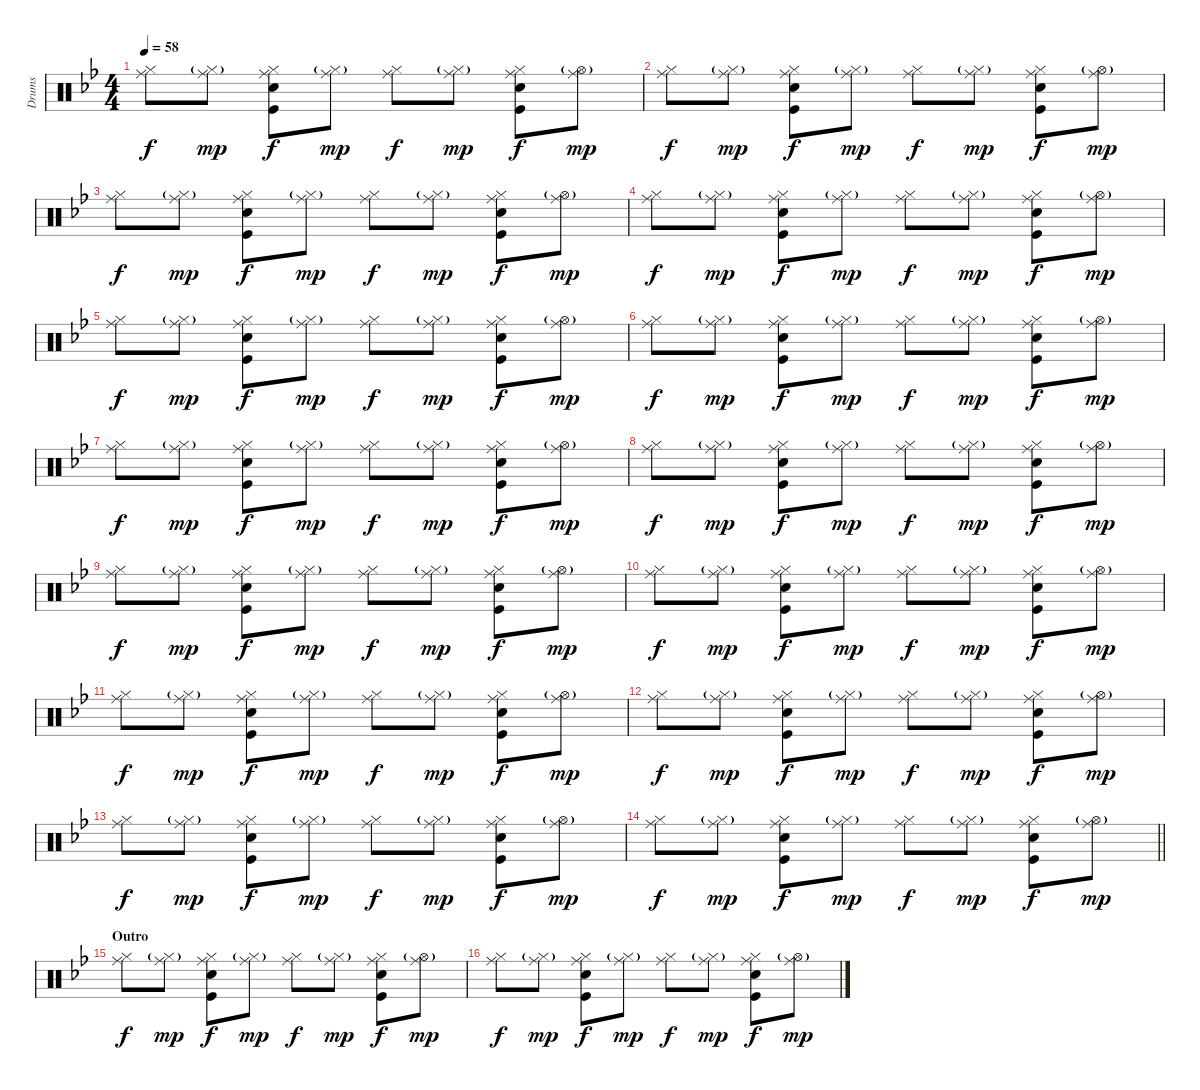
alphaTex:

\track ("Drums" "Drums") {instrument percussion}
\staff {score}
\articulation defaults
\ts (4 4)
\tempo 58
\clef neutral
\ks bb
("Ride (middle)" "Hi-Hat (closed)").8{dy f} ("Ride (middle)" "Hi-Hat (closed)"{g}).8{dy mp} ("Ride (middle)" "Hi-Hat (closed)" "Kick (hit)" "Snare (hit) 2").8{dy f} ("Ride (middle)" "Hi-Hat (closed)"{g}).8{dy mp} ("Ride (middle)" "Hi-Hat (closed)").8{dy f} ("Ride (middle)" "Hi-Hat (closed)"{g}).8{dy mp} ("Ride (middle)" "Hi-Hat (closed)" "Kick (hit)" "Snare (hit) 2").8{dy f} ("Ride (middle)" "Hi-Hat (open)"{g}).8{dy mp} |
("Ride (middle)" "Hi-Hat (closed)").8{dy f} ("Ride (middle)" "Hi-Hat (closed)"{g}).8{dy mp} ("Ride (middle)" "Hi-Hat (closed)" "Kick (hit)" "Snare (hit) 2").8{dy f} ("Ride (middle)" "Hi-Hat (closed)"{g}).8{dy mp} ("Ride (middle)" "Hi-Hat (closed)").8{dy f} ("Ride (middle)" "Hi-Hat (closed)"{g}).8{dy mp} ("Ride (middle)" "Hi-Hat (closed)" "Kick (hit)" "Snare (hit) 2").8{dy f} ("Ride (middle)" "Hi-Hat (open)"{g}).8{dy mp} |
("Ride (middle)" "Hi-Hat (closed)").8{dy f} ("Ride (middle)" "Hi-Hat (closed)"{g}).8{dy mp} ("Ride (middle)" "Hi-Hat (closed)" "Kick (hit)" "Snare (hit) 2").8{dy f} ("Ride (middle)" "Hi-Hat (closed)"{g}).8{dy mp} ("Ride (middle)" "Hi-Hat (closed)").8{dy f} ("Ride (middle)" "Hi-Hat (closed)"{g}).8{dy mp} ("Ride (middle)" "Hi-Hat (closed)" "Kick (hit)" "Snare (hit) 2").8{dy f} ("Ride (middle)" "Hi-Hat (open)"{g}).8{dy mp} |
("Ride (middle)" "Hi-Hat (closed)").8{dy f} ("Ride (middle)" "Hi-Hat (closed)"{g}).8{dy mp} ("Ride (middle)" "Hi-Hat (closed)" "Kick (hit)" "Snare (hit) 2").8{dy f} ("Ride (middle)" "Hi-Hat (closed)"{g}).8{dy mp} ("Ride (middle)" "Hi-Hat (closed)").8{dy f} ("Ride (middle)" "Hi-Hat (closed)"{g}).8{dy mp} ("Ride (middle)" "Hi-Hat (closed)" "Kick (hit)" "Snare (hit) 2").8{dy f} ("Ride (middle)" "Hi-Hat (open)"{g}).8{dy mp} |
("Ride (middle)" "Hi-Hat (closed)").8{dy f} ("Ride (middle)" "Hi-Hat (closed)"{g}).8{dy mp} ("Ride (middle)" "Hi-Hat (closed)" "Kick (hit)" "Snare (hit) 2").8{dy f} ("Ride (middle)" "Hi-Hat (closed)"{g}).8{dy mp} ("Ride (middle)" "Hi-Hat (closed)").8{dy f} ("Ride (middle)" "Hi-Hat (closed)"{g}).8{dy mp} ("Ride (middle)" "Hi-Hat (closed)" "Kick (hit)" "Snare (hit) 2").8{dy f} ("Ride (middle)" "Hi-Hat (open)"{g}).8{dy mp} |
("Ride (middle)" "Hi-Hat (closed)").8{dy f} ("Ride (middle)" "Hi-Hat (closed)"{g}).8{dy mp} ("Ride (middle)" "Hi-Hat (closed)" "Kick (hit)" "Snare (hit) 2").8{dy f} ("Ride (middle)" "Hi-Hat (closed)"{g}).8{dy mp} ("Ride (middle)" "Hi-Hat (closed)").8{dy f} ("Ride (middle)" "Hi-Hat (closed)"{g}).8{dy mp} ("Ride (middle)" "Hi-Hat (closed)" "Kick (hit)" "Snare (hit) 2").8{dy f} ("Ride (middle)" "Hi-Hat (open)"{g}).8{dy mp} |
("Ride (middle)" "Hi-Hat (closed)").8{dy f} ("Ride (middle)" "Hi-Hat (closed)"{g}).8{dy mp} ("Ride (middle)" "Hi-Hat (closed)" "Kick (hit)" "Snare (hit) 2").8{dy f} ("Ride (middle)" "Hi-Hat (closed)"{g}).8{dy mp} ("Ride (middle)" "Hi-Hat (closed)").8{dy f} ("Ride (middle)" "Hi-Hat (closed)"{g}).8{dy mp} ("Ride (middle)" "Hi-Hat (closed)" "Kick (hit)" "Snare (hit) 2").8{dy f} ("Ride (middle)" "Hi-Hat (open)"{g}).8{dy mp} |
("Ride (middle)" "Hi-Hat (closed)").8{dy f} ("Ride (middle)" "Hi-Hat (closed)"{g}).8{dy mp} ("Ride (middle)" "Hi-Hat (closed)" "Kick (hit)" "Snare (hit) 2").8{dy f} ("Ride (middle)" "Hi-Hat (closed)"{g}).8{dy mp} ("Ride (middle)" "Hi-Hat (closed)").8{dy f} ("Ride (middle)" "Hi-Hat (closed)"{g}).8{dy mp} ("Ride (middle)" "Hi-Hat (closed)" "Kick (hit)" "Snare (hit) 2").8{dy f} ("Ride (middle)" "Hi-Hat (open)"{g}).8{dy mp} |
("Ride (middle)" "Hi-Hat (closed)").8{dy f} ("Ride (middle)" "Hi-Hat (closed)"{g}).8{dy mp} ("Ride (middle)" "Hi-Hat (closed)" "Kick (hit)" "Snare (hit) 2").8{dy f} ("Ride (middle)" "Hi-Hat (closed)"{g}).8{dy mp} ("Ride (middle)" "Hi-Hat (closed)").8{dy f} ("Ride (middle)" "Hi-Hat (closed)"{g}).8{dy mp} ("Ride (middle)" "Hi-Hat (closed)" "Kick (hit)" "Snare (hit) 2").8{dy f} ("Ride (middle)" "Hi-Hat (open)"{g}).8{dy mp} |
("Ride (middle)" "Hi-Hat (closed)").8{dy f} ("Ride (middle)" "Hi-Hat (closed)"{g}).8{dy mp} ("Ride (middle)" "Hi-Hat (closed)" "Kick (hit)" "Snare (hit) 2").8{dy f} ("Ride (middle)" "Hi-Hat (closed)"{g}).8{dy mp} ("Ride (middle)" "Hi-Hat (closed)").8{dy f} ("Ride (middle)" "Hi-Hat (closed)"{g}).8{dy mp} ("Ride (middle)" "Hi-Hat (closed)" "Kick (hit)" "Snare (hit) 2").8{dy f} ("Ride (middle)" "Hi-Hat (open)"{g}).8{dy mp} |
("Ride (middle)" "Hi-Hat (closed)").8{dy f} ("Ride (middle)" "Hi-Hat (closed)"{g}).8{dy mp} ("Ride (middle)" "Hi-Hat (closed)" "Kick (hit)" "Snare (hit) 2").8{dy f} ("Ride (middle)" "Hi-Hat (closed)"{g}).8{dy mp} ("Ride (middle)" "Hi-Hat (closed)").8{dy f} ("Ride (middle)" "Hi-Hat (closed)"{g}).8{dy mp} ("Ride (middle)" "Hi-Hat (closed)" "Kick (hit)" "Snare (hit) 2").8{dy f} ("Ride (middle)" "Hi-Hat (open)"{g}).8{dy mp} |
("Ride (middle)" "Hi-Hat (closed)").8{dy f} ("Ride (middle)" "Hi-Hat (closed)"{g}).8{dy mp} ("Ride (middle)" "Hi-Hat (closed)" "Kick (hit)" "Snare (hit) 2").8{dy f} ("Ride (middle)" "Hi-Hat (closed)"{g}).8{dy mp} ("Ride (middle)" "Hi-Hat (closed)").8{dy f} ("Ride (middle)" "Hi-Hat (closed)"{g}).8{dy mp} ("Ride (middle)" "Hi-Hat (closed)" "Kick (hit)" "Snare (hit) 2").8{dy f} ("Ride (middle)" "Hi-Hat (open)"{g}).8{dy mp} |
("Ride (middle)" "Hi-Hat (closed)").8{dy f} ("Ride (middle)" "Hi-Hat (closed)"{g}).8{dy mp} ("Ride (middle)" "Hi-Hat (closed)" "Kick (hit)" "Snare (hit) 2").8{dy f} ("Ride (middle)" "Hi-Hat (closed)"{g}).8{dy mp} ("Ride (middle)" "Hi-Hat (closed)").8{dy f} ("Ride (middle)" "Hi-Hat (closed)"{g}).8{dy mp} ("Ride (middle)" "Hi-Hat (closed)" "Kick (hit)" "Snare (hit) 2").8{dy f} ("Ride (middle)" "Hi-Hat (open)"{g}).8{dy mp} |
\barLineRight lightlight
("Ride (middle)" "Hi-Hat (closed)").8{dy f} ("Ride (middle)" "Hi-Hat (closed)"{g}).8{dy mp} ("Ride (middle)" "Hi-Hat (closed)" "Kick (hit)" "Snare (hit) 2").8{dy f} ("Ride (middle)" "Hi-Hat (closed)"{g}).8{dy mp} ("Ride (middle)" "Hi-Hat (closed)").8{dy f} ("Ride (middle)" "Hi-Hat (closed)"{g}).8{dy mp} ("Ride (middle)" "Hi-Hat (closed)" "Kick (hit)" "Snare (hit) 2").8{dy f} ("Ride (middle)" "Hi-Hat (open)"{g}).8{dy mp} |
\section ("" "Outro")
("Ride (middle)" "Hi-Hat (closed)").8{dy f} ("Ride (middle)" "Hi-Hat (closed)"{g}).8{dy mp} ("Ride (middle)" "Hi-Hat (closed)" "Kick (hit)" "Snare (hit) 2").8{dy f} ("Ride (middle)" "Hi-Hat (closed)"{g}).8{dy mp} ("Ride (middle)" "Hi-Hat (closed)").8{dy f} ("Ride (middle)" "Hi-Hat (closed)"{g}).8{dy mp} ("Ride (middle)" "Hi-Hat (closed)" "Kick (hit)" "Snare (hit) 2").8{dy f} ("Ride (middle)" "Hi-Hat (open)"{g}).8{dy mp} |
("Ride (middle)" "Hi-Hat (closed)").8{dy f} ("Ride (middle)" "Hi-Hat (closed)"{g}).8{dy mp} ("Ride (middle)" "Hi-Hat (closed)" "Kick (hit)" "Snare (hit) 2").8{dy f} ("Ride (middle)" "Hi-Hat (closed)"{g}).8{dy mp} ("Ride (middle)" "Hi-Hat (closed)").8{dy f} ("Ride (middle)" "Hi-Hat (closed)"{g}).8{dy mp} ("Ride (middle)" "Hi-Hat (closed)" "Kick (hit)" "Snare (hit) 2").8{dy f} ("Ride (middle)" "Hi-Hat (open)"{g}).8{dy mp}
